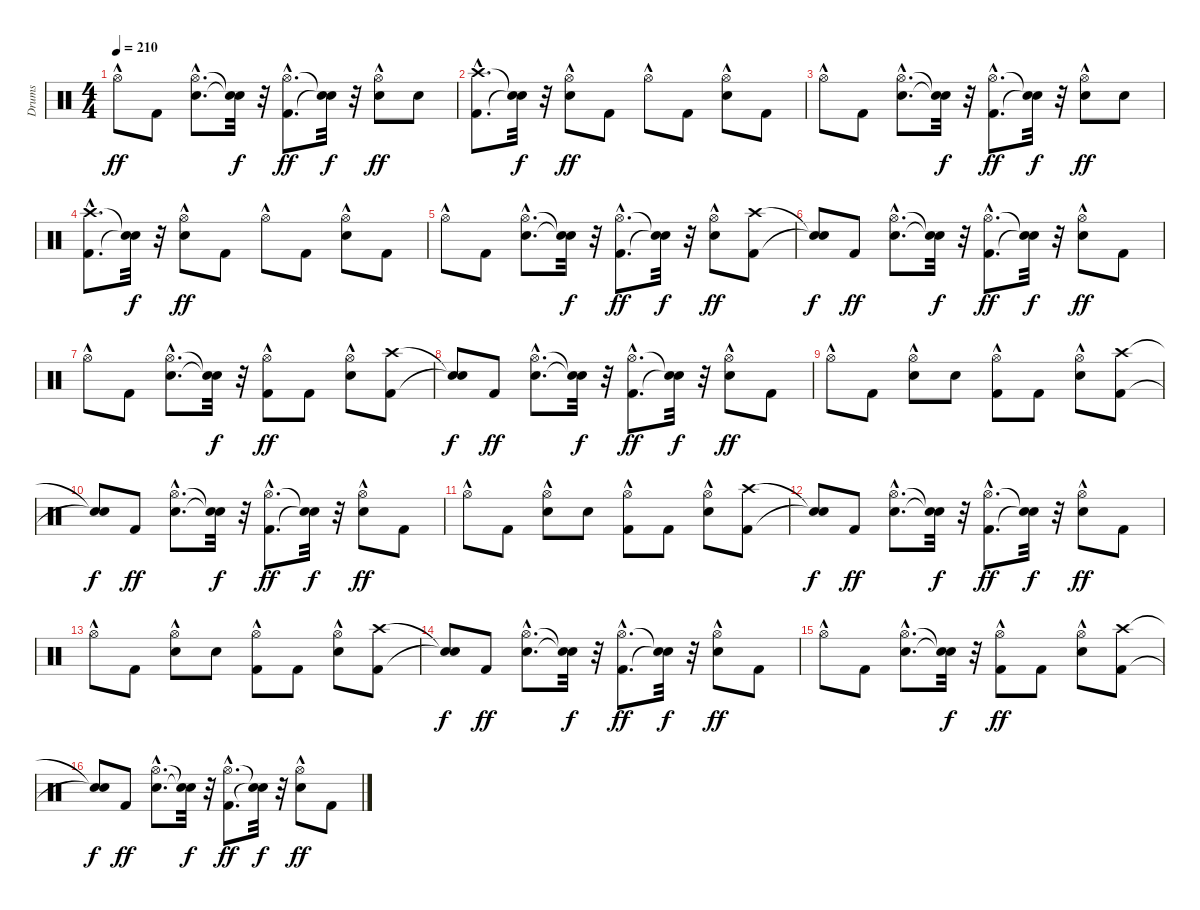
\track ("Drums" "Drums") {instrument percussion}
\staff {score}
\articulation defaults
\ts (4 4)
\tempo 210
\clef neutral
\ks c "Hi-Hat (open)"{hac}.8{dy ff} "Kick (hit) 2".8
("Snare (hit) 2"{hac} "Hi-Hat (open)"{hac}).8{d} ("Snare (hit)"{t} "Snare (hit)"{t}).32{dy f} r.32 ("Kick (hit) 2"{hac} "Hi-Hat (open)"{hac}).8{d dy ff} ("Snare (hit)"{t} "Snare (hit)"{t}).32{dy f} r.32 ("Snare (hit) 2" "Hi-Hat (open)"{hac}).8{dy ff} "Snare (hit) 2".8 |
("Kick (hit) 2"{hac} "Crash high (hit)"{hac}).8{d} ("Snare (hit)"{t} "Snare (hit)"{t}).32{dy f} r.32 ("Snare (hit) 2" "Hi-Hat (open)"{hac}).8{dy ff} "Kick (hit) 2".8 "Hi-Hat (open)"{hac}.8 "Kick (hit) 2".8 ("Snare (hit) 2" "Hi-Hat (open)"{hac}).8 "Kick (hit) 2".8 |
"Hi-Hat (open)"{hac}.8 "Kick (hit) 2".8 ("Snare (hit) 2"{hac} "Hi-Hat (open)"{hac}).8{d} ("Snare (hit)"{t} "Snare (hit)"{t}).32{dy f} r.32 ("Kick (hit) 2"{hac} "Hi-Hat (open)"{hac}).8{d dy ff} ("Snare (hit)"{t} "Snare (hit)"{t}).32{dy f} r.32 ("Snare (hit) 2" "Hi-Hat (open)"{hac}).8{dy ff} "Snare (hit) 2".8 |
("Kick (hit) 2"{hac} "Crash high (hit)"{hac}).8{d} ("Snare (hit)"{t} "Snare (hit)"{t}).32{dy f} r.32 ("Snare (hit) 2" "Hi-Hat (open)"{hac}).8{dy ff} "Kick (hit) 2".8 "Hi-Hat (open)"{hac}.8 "Kick (hit) 2".8 ("Snare (hit) 2" "Hi-Hat (open)"{hac}).8 "Kick (hit) 2".8 |
"Hi-Hat (open)"{hac}.8 "Kick (hit) 2".8 ("Snare (hit) 2"{hac} "Hi-Hat (open)"{hac}).8{d} ("Snare (hit)"{t} "Snare (hit)"{t}).32{dy f} r.32 ("Kick (hit) 2"{hac} "Hi-Hat (open)"{hac}).8{d dy ff} ("Snare (hit)"{t} "Snare (hit)"{t}).32{dy f} r.32 ("Snare (hit) 2" "Hi-Hat (open)"{hac}).8{dy ff} ("Kick (hit) 2" "Crash high (hit)").8 |
("Snare (hit)"{t} "Snare (hit)"{t}).8{dy f} "Kick (hit) 2".8{dy ff} ("Snare (hit) 2"{hac} "Hi-Hat (open)"{hac}).8{d} ("Snare (hit)"{t} "Snare (hit)"{t}).32{dy f} r.32 ("Kick (hit) 2"{hac} "Hi-Hat (open)"{hac}).8{d dy ff} ("Snare (hit)"{t} "Snare (hit)"{t}).32{dy f} r.32 ("Snare (hit) 2" "Hi-Hat (open)"{hac}).8{dy ff} "Kick (hit) 2".8 |
"Hi-Hat (open)"{hac}.8 "Kick (hit) 2".8 ("Snare (hit) 2"{hac} "Hi-Hat (open)"{hac}).8{d} ("Snare (hit)"{t} "Snare (hit)"{t}).32{dy f} r.32 ("Kick (hit) 2" "Hi-Hat (open)"{hac}).8{dy ff} "Kick (hit) 2".8 ("Snare (hit) 2" "Hi-Hat (open)"{hac}).8 ("Kick (hit) 2" "Crash high (hit)").8 |
("Snare (hit)"{t} "Snare (hit)"{t}).8{dy f} "Kick (hit) 2".8{dy ff} ("Snare (hit) 2"{hac} "Hi-Hat (open)"{hac}).8{d} ("Snare (hit)"{t} "Snare (hit)"{t}).32{dy f} r.32 ("Kick (hit) 2"{hac} "Hi-Hat (open)"{hac}).8{d dy ff} ("Snare (hit)"{t} "Snare (hit)"{t}).32{dy f} r.32 ("Snare (hit) 2" "Hi-Hat (open)"{hac}).8{dy ff} "Kick (hit) 2".8 |
"Hi-Hat (open)"{hac}.8 "Kick (hit) 2".8 ("Snare (hit) 2" "Hi-Hat (open)"{hac}).8 "Snare (hit) 2".8 ("Kick (hit) 2" "Hi-Hat (open)"{hac}).8 "Kick (hit) 2".8 ("Snare (hit) 2" "Hi-Hat (open)"{hac}).8 ("Kick (hit) 2" "Crash high (hit)").8 |
("Snare (hit)"{t} "Snare (hit)"{t}).8{dy f} "Kick (hit) 2".8{dy ff} ("Snare (hit) 2"{hac} "Hi-Hat (open)"{hac}).8{d} ("Snare (hit)"{t} "Snare (hit)"{t}).32{dy f} r.32 ("Kick (hit) 2"{hac} "Hi-Hat (open)"{hac}).8{d dy ff} ("Snare (hit)"{t} "Snare (hit)"{t}).32{dy f} r.32 ("Snare (hit) 2" "Hi-Hat (open)"{hac}).8{dy ff} "Kick (hit) 2".8 |
"Hi-Hat (open)"{hac}.8 "Kick (hit) 2".8 ("Snare (hit) 2" "Hi-Hat (open)"{hac}).8 "Snare (hit) 2".8 ("Kick (hit) 2" "Hi-Hat (open)"{hac}).8 "Kick (hit) 2".8 ("Snare (hit) 2" "Hi-Hat (open)"{hac}).8 ("Kick (hit) 2" "Crash high (hit)").8 |
("Snare (hit)"{t} "Snare (hit)"{t}).8{dy f} "Kick (hit) 2".8{dy ff} ("Snare (hit) 2"{hac} "Hi-Hat (open)"{hac}).8{d} ("Snare (hit)"{t} "Snare (hit)"{t}).32{dy f} r.32 ("Kick (hit) 2"{hac} "Hi-Hat (open)"{hac}).8{d dy ff} ("Snare (hit)"{t} "Snare (hit)"{t}).32{dy f} r.32 ("Snare (hit) 2" "Hi-Hat (open)"{hac}).8{dy ff} "Kick (hit) 2".8 |
"Hi-Hat (open)"{hac}.8 "Kick (hit) 2".8 ("Snare (hit) 2" "Hi-Hat (open)"{hac}).8 "Snare (hit) 2".8 ("Kick (hit) 2" "Hi-Hat (open)"{hac}).8 "Kick (hit) 2".8 ("Snare (hit) 2" "Hi-Hat (open)"{hac}).8 ("Kick (hit) 2" "Crash high (hit)").8 |
("Snare (hit)"{t} "Snare (hit)"{t}).8{dy f} "Kick (hit) 2".8{dy ff} ("Snare (hit) 2"{hac} "Hi-Hat (open)"{hac}).8{d} ("Snare (hit)"{t} "Snare (hit)"{t}).32{dy f} r.32 ("Kick (hit) 2"{hac} "Hi-Hat (open)"{hac}).8{d dy ff} ("Snare (hit)"{t} "Snare (hit)"{t}).32{dy f} r.32 ("Snare (hit) 2" "Hi-Hat (open)"{hac}).8{dy ff} "Kick (hit) 2".8 |
"Hi-Hat (open)"{hac}.8 "Kick (hit) 2".8 ("Snare (hit) 2"{hac} "Hi-Hat (open)"{hac}).8{d} ("Snare (hit)"{t} "Snare (hit)"{t}).32{dy f} r.32 ("Kick (hit) 2" "Hi-Hat (open)"{hac}).8{dy ff} "Kick (hit) 2".8 ("Snare (hit) 2" "Hi-Hat (open)"{hac}).8 ("Kick (hit) 2" "Crash high (hit)").8 |
("Snare (hit)"{t} "Snare (hit)"{t}).8{dy f} "Kick (hit) 2".8{dy ff} ("Snare (hit) 2"{hac} "Hi-Hat (open)"{hac}).8{d} ("Snare (hit)"{t} "Snare (hit)"{t}).32{dy f} r.32 ("Kick (hit) 2"{hac} "Hi-Hat (open)"{hac}).8{d dy ff} ("Snare (hit)"{t} "Snare (hit)"{t}).32{dy f} r.32 ("Snare (hit) 2" "Hi-Hat (open)"{hac}).8{dy ff} "Kick (hit) 2".8
